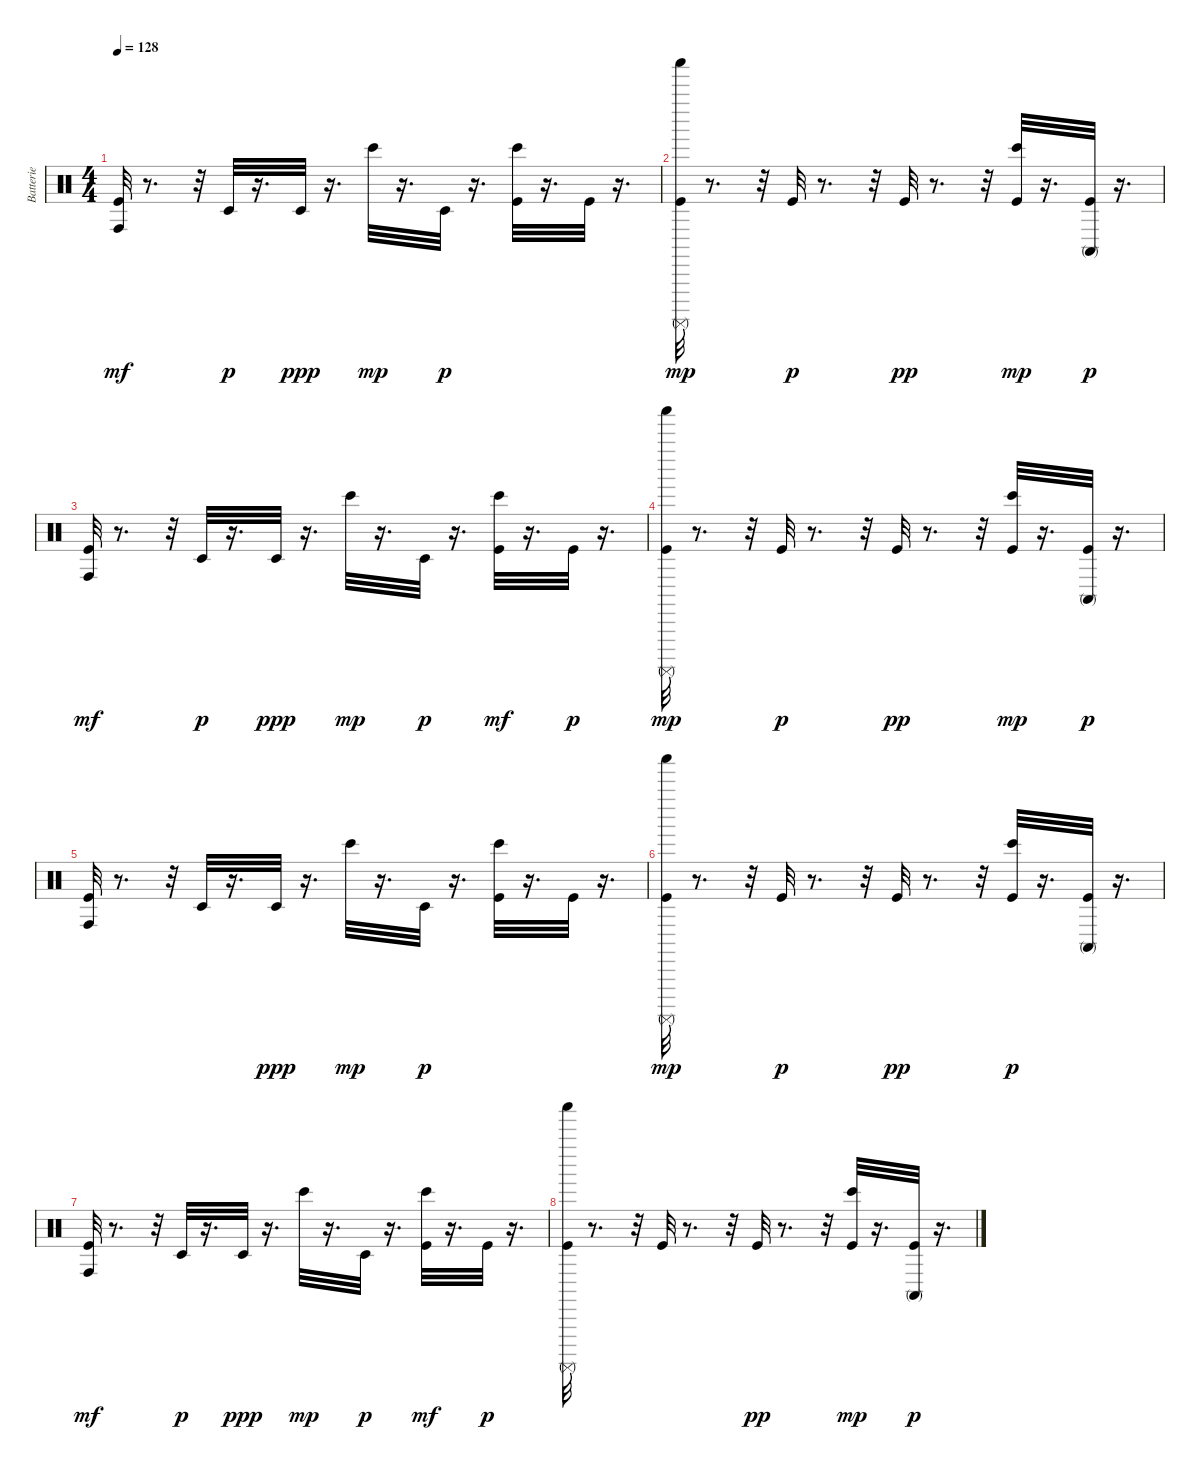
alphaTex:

\track ("Batterie" "Batterie") {instrument percussion}
\staff {score}
\articulation defaults
\ts (4 4)
\tempo 128
\clef neutral
\ks c
("Kick (hit)" "Conga high (hit)").32{dy mf} r.8{d} r.32 "Timbale low (hit)".32{dy p} r.16{d} "Timbale low (hit)".32{dy ppp} r.16{d} "Bongo High (hit)".32{dy mp} r.16{d} "Timbale low (hit)".32{dy p} r.16{d} ("Bongo High (hit)" "Kick (hit)").32 r.16{d} "Kick (hit)".32 r.16{d} |
("Kick (hit)" "Surdo (mute)" "Shaker (hit)").32{dy mp} r.8{d} r.32 "Kick (hit)".32{dy p} r.8{d} r.32 "Kick (hit)".32{dy pp} r.8{d} r.32 ("Kick (hit)" "Bongo High (hit)").32{dy mp} r.16{d} ("Kick (hit)" "Conga high (mute)").32{dy p} r.16{d} |
("Kick (hit)" "Conga high (hit)").32{dy mf} r.8{d} r.32 "Timbale low (hit)".32{dy p} r.16{d} "Timbale low (hit)".32{dy ppp} r.16{d} "Bongo High (hit)".32{dy mp} r.16{d} "Timbale low (hit)".32{dy p} r.16{d} ("Kick (hit)" "Bongo High (hit)").32{dy mf} r.16{d} "Kick (hit)".32{dy p} r.16{d} |
("Kick (hit)" "Surdo (mute)" "Shaker (hit)").32{dy mp} r.8{d} r.32 "Kick (hit)".32{dy p} r.8{d} r.32 "Kick (hit)".32{dy pp} r.8{d} r.32 ("Kick (hit)" "Bongo High (hit)").32{dy mp} r.16{d} ("Conga high (mute)" "Kick (hit)").32{dy p} r.16{d} |
("Conga high (hit)" "Kick (hit)").32 r.8{d} r.32 "Timbale low (hit)".32 r.16{d} "Timbale low (hit)".32{dy ppp} r.16{d} "Bongo High (hit)".32{dy mp} r.16{d} "Timbale low (hit)".32{dy p} r.16{d} ("Bongo High (hit)" "Kick (hit)").32 r.16{d} "Kick (hit)".32 r.16{d} |
("Kick (hit)" "Shaker (hit)" "Surdo (mute)").32{dy mp} r.8{d} r.32 "Kick (hit)".32{dy p} r.8{d} r.32 "Kick (hit)".32{dy pp} r.8{d} r.32 ("Bongo High (hit)" "Kick (hit)").32{dy p} r.16{d} ("Conga high (mute)" "Kick (hit)").32 r.16{d} |
("Kick (hit)" "Conga high (hit)").32{dy mf} r.8{d} r.32 "Timbale low (hit)".32{dy p} r.16{d} "Timbale low (hit)".32{dy ppp} r.16{d} "Bongo High (hit)".32{dy mp} r.16{d} "Timbale low (hit)".32{dy p} r.16{d} ("Kick (hit)" "Bongo High (hit)").32{dy mf} r.16{d} "Kick (hit)".32{dy p} r.16{d} |
("Surdo (mute)" "Shaker (hit)" "Kick (hit)").32 r.8{d} r.32 "Kick (hit)".32 r.8{d} r.32 "Kick (hit)".32{dy pp} r.8{d} r.32 ("Kick (hit)" "Bongo High (hit)").32{dy mp} r.16{d} ("Kick (hit)" "Conga high (mute)").32{dy p} r.16{d}
